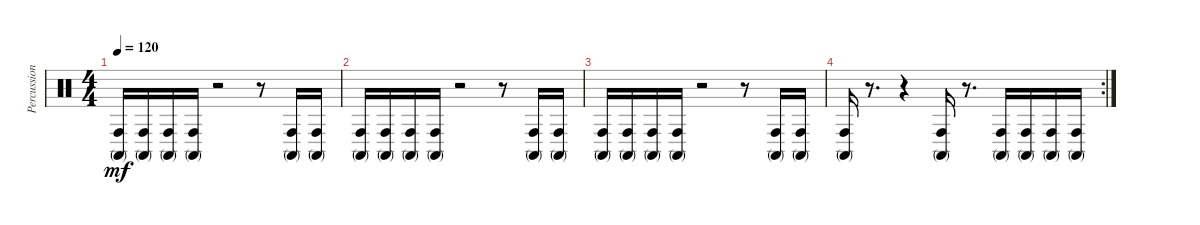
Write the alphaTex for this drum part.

\track ("Percussion" "Percussion") {instrument percussion}
\staff {score}
\articulation defaults
\ts (4 4)
\tempo 120
\clef neutral
\ks c
("Conga high (hit)" "Conga high (mute)").16{dy mf} ("Conga high (hit)" "Conga high (mute)").16 ("Conga high (hit)" "Conga high (mute)").16 ("Conga high (hit)" "Conga high (mute)").16 r.2 r.8 ("Conga high (hit)" "Conga high (mute)").16 ("Conga high (hit)" "Conga high (mute)").16 |
("Conga high (hit)" "Conga high (mute)").16 ("Conga high (hit)" "Conga high (mute)").16 ("Conga high (hit)" "Conga high (mute)").16 ("Conga high (hit)" "Conga high (mute)").16 r.2 r.8 ("Conga high (hit)" "Conga high (mute)").16 ("Conga high (hit)" "Conga high (mute)").16 |
("Conga high (hit)" "Conga high (mute)").16 ("Conga high (hit)" "Conga high (mute)").16 ("Conga high (hit)" "Conga high (mute)").16 ("Conga high (hit)" "Conga high (mute)").16 r.2 r.8 ("Conga high (hit)" "Conga high (mute)").16 ("Conga high (hit)" "Conga high (mute)").16 |
\rc 2
("Conga high (hit)" "Conga high (mute)").16 r.8{d} r.4 ("Conga high (hit)" "Conga high (mute)").16 r.8{d} ("Conga high (hit)" "Conga high (mute)").16 ("Conga high (hit)" "Conga high (mute)").16 ("Conga high (hit)" "Conga high (mute)").16 ("Conga high (hit)" "Conga high (mute)").16
